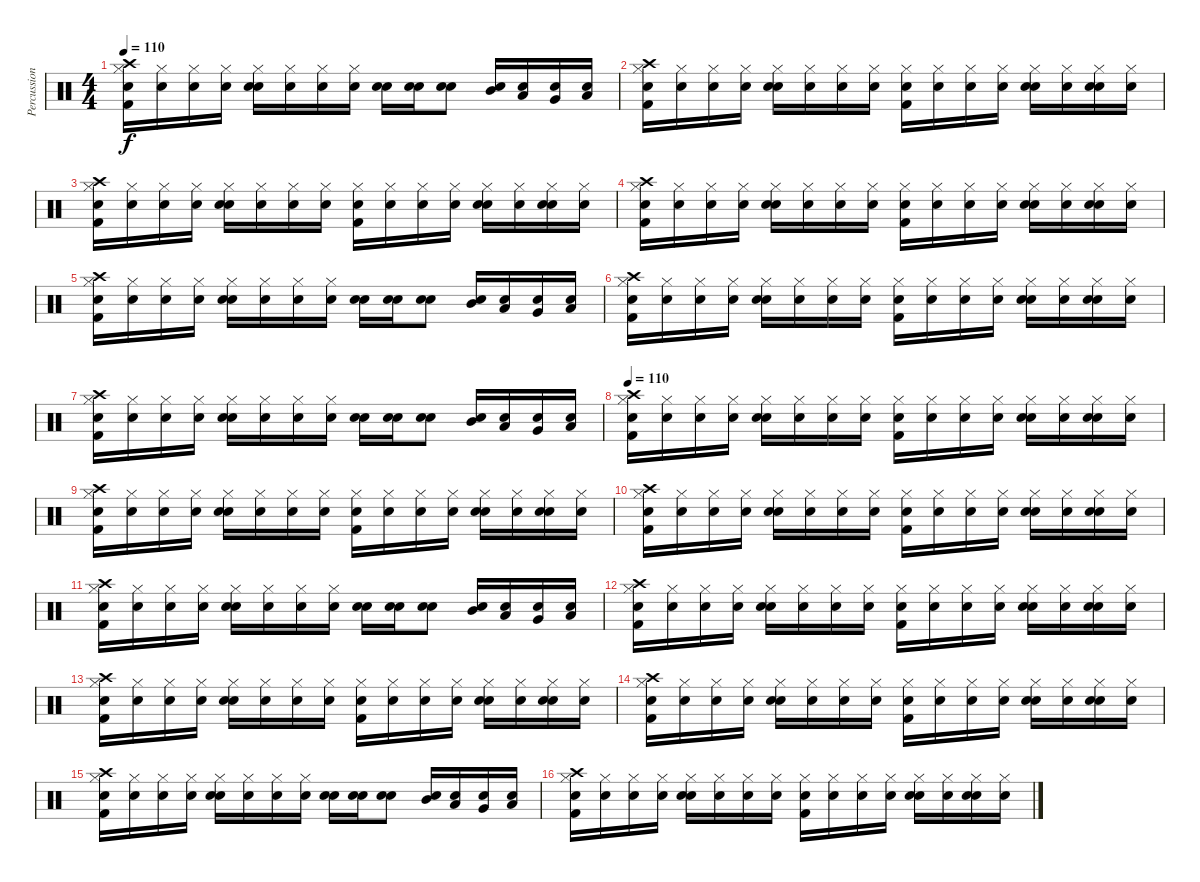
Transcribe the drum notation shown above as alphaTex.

\track ("Percussion" "Percussion") {instrument percussion}
\staff {score}
\articulation defaults
\ts (4 4)
\tempo 110
\clef neutral
\ks c
("Snare (hit)" "Kick (hit) 2" "Hi-Hat (closed)" "Crash high (hit)").16{dy f} ("Snare (hit)" "Hi-Hat (closed)").16 ("Snare (hit)" "Hi-Hat (closed)").16 ("Snare (hit)" "Hi-Hat (closed)").16 ("Snare (hit)" "Snare (hit) 2" "Hi-Hat (closed)").16 ("Snare (hit)" "Hi-Hat (closed)").16 ("Snare (hit)" "Hi-Hat (closed)").16 ("Snare (hit)" "Hi-Hat (closed)").16 ("Snare (hit)" "Snare (hit) 2").16 ("Snare (hit)" "Snare (hit) 2").16 ("Snare (hit)" "Snare (hit) 2").8 ("Snare (hit)" "Mid Tom (hit)").16 ("Snare (hit)" "Low Tom (hit)").16 ("Snare (hit)" "Very Low Tom (hit)").16 ("Snare (hit)" "Low Floor Tom (hit)").16 |
("Snare (hit)" "Kick (hit) 2" "Hi-Hat (closed)" "Crash high (hit)").16 ("Snare (hit)" "Hi-Hat (closed)").16 ("Snare (hit)" "Hi-Hat (closed)").16 ("Snare (hit)" "Hi-Hat (closed)").16 ("Snare (hit)" "Snare (hit) 2" "Hi-Hat (closed)").16 ("Snare (hit)" "Hi-Hat (closed)").16 ("Snare (hit)" "Hi-Hat (closed)").16 ("Snare (hit)" "Hi-Hat (closed)").16 ("Snare (hit)" "Kick (hit) 2" "Hi-Hat (closed)").16 ("Snare (hit)" "Hi-Hat (closed)").16 ("Snare (hit)" "Hi-Hat (closed)").16 ("Snare (hit)" "Hi-Hat (closed)").16 ("Snare (hit)" "Snare (hit) 2" "Hi-Hat (closed)").16 ("Snare (hit)" "Hi-Hat (closed)").16 ("Snare (hit)" "Snare (hit) 2" "Hi-Hat (closed)").16 ("Snare (hit)" "Hi-Hat (closed)").16 |
("Snare (hit)" "Kick (hit) 2" "Hi-Hat (closed)" "Crash high (hit)").16 ("Snare (hit)" "Hi-Hat (closed)").16 ("Snare (hit)" "Hi-Hat (closed)").16 ("Snare (hit)" "Hi-Hat (closed)").16 ("Snare (hit)" "Snare (hit) 2" "Hi-Hat (closed)").16 ("Snare (hit)" "Hi-Hat (closed)").16 ("Snare (hit)" "Hi-Hat (closed)").16 ("Snare (hit)" "Hi-Hat (closed)").16 ("Snare (hit)" "Kick (hit) 2" "Hi-Hat (closed)").16 ("Snare (hit)" "Hi-Hat (closed)").16 ("Snare (hit)" "Hi-Hat (closed)").16 ("Snare (hit)" "Hi-Hat (closed)").16 ("Snare (hit)" "Snare (hit) 2" "Hi-Hat (closed)").16 ("Snare (hit)" "Hi-Hat (closed)").16 ("Snare (hit)" "Snare (hit) 2" "Hi-Hat (closed)").16 ("Snare (hit)" "Hi-Hat (closed)").16 |
("Snare (hit)" "Kick (hit) 2" "Hi-Hat (closed)" "Crash high (hit)").16 ("Snare (hit)" "Hi-Hat (closed)").16 ("Snare (hit)" "Hi-Hat (closed)").16 ("Snare (hit)" "Hi-Hat (closed)").16 ("Snare (hit)" "Snare (hit) 2" "Hi-Hat (closed)").16 ("Snare (hit)" "Hi-Hat (closed)").16 ("Snare (hit)" "Hi-Hat (closed)").16 ("Snare (hit)" "Hi-Hat (closed)").16 ("Snare (hit)" "Kick (hit) 2" "Hi-Hat (closed)").16 ("Snare (hit)" "Hi-Hat (closed)").16 ("Snare (hit)" "Hi-Hat (closed)").16 ("Snare (hit)" "Hi-Hat (closed)").16 ("Snare (hit)" "Snare (hit) 2" "Hi-Hat (closed)").16 ("Snare (hit)" "Hi-Hat (closed)").16 ("Snare (hit)" "Snare (hit) 2" "Hi-Hat (closed)").16 ("Snare (hit)" "Hi-Hat (closed)").16 |
("Snare (hit)" "Kick (hit) 2" "Hi-Hat (closed)" "Crash high (hit)").16 ("Snare (hit)" "Hi-Hat (closed)").16 ("Snare (hit)" "Hi-Hat (closed)").16 ("Snare (hit)" "Hi-Hat (closed)").16 ("Snare (hit)" "Snare (hit) 2" "Hi-Hat (closed)").16 ("Snare (hit)" "Hi-Hat (closed)").16 ("Snare (hit)" "Hi-Hat (closed)").16 ("Snare (hit)" "Hi-Hat (closed)").16 ("Snare (hit)" "Snare (hit) 2").16 ("Snare (hit)" "Snare (hit) 2").16 ("Snare (hit)" "Snare (hit) 2").8 ("Snare (hit)" "Mid Tom (hit)").16 ("Snare (hit)" "Low Tom (hit)").16 ("Snare (hit)" "Very Low Tom (hit)").16 ("Snare (hit)" "Low Floor Tom (hit)").16 |
("Snare (hit)" "Kick (hit) 2" "Hi-Hat (closed)" "Crash high (hit)").16 ("Snare (hit)" "Hi-Hat (closed)").16 ("Snare (hit)" "Hi-Hat (closed)").16 ("Snare (hit)" "Hi-Hat (closed)").16 ("Snare (hit)" "Snare (hit) 2" "Hi-Hat (closed)").16 ("Snare (hit)" "Hi-Hat (closed)").16 ("Snare (hit)" "Hi-Hat (closed)").16 ("Snare (hit)" "Hi-Hat (closed)").16 ("Snare (hit)" "Kick (hit) 2" "Hi-Hat (closed)").16 ("Snare (hit)" "Hi-Hat (closed)").16 ("Snare (hit)" "Hi-Hat (closed)").16 ("Snare (hit)" "Hi-Hat (closed)").16 ("Snare (hit)" "Snare (hit) 2" "Hi-Hat (closed)").16 ("Snare (hit)" "Hi-Hat (closed)").16 ("Snare (hit)" "Snare (hit) 2" "Hi-Hat (closed)").16 ("Snare (hit)" "Hi-Hat (closed)").16 |
("Snare (hit)" "Kick (hit) 2" "Hi-Hat (closed)" "Crash high (hit)").16 ("Snare (hit)" "Hi-Hat (closed)").16 ("Snare (hit)" "Hi-Hat (closed)").16 ("Snare (hit)" "Hi-Hat (closed)").16 ("Snare (hit)" "Snare (hit) 2" "Hi-Hat (closed)").16 ("Snare (hit)" "Hi-Hat (closed)").16 ("Snare (hit)" "Hi-Hat (closed)").16 ("Snare (hit)" "Hi-Hat (closed)").16 ("Snare (hit)" "Snare (hit) 2").16 ("Snare (hit)" "Snare (hit) 2").16 ("Snare (hit)" "Snare (hit) 2").8 ("Snare (hit)" "Mid Tom (hit)").16 ("Snare (hit)" "Low Tom (hit)").16 ("Snare (hit)" "Very Low Tom (hit)").16 ("Snare (hit)" "Low Floor Tom (hit)").16 |
\tempo 110
("Snare (hit)" "Kick (hit) 2" "Hi-Hat (closed)" "Crash high (hit)").16 ("Snare (hit)" "Hi-Hat (closed)").16 ("Snare (hit)" "Hi-Hat (closed)").16 ("Snare (hit)" "Hi-Hat (closed)").16 ("Snare (hit)" "Snare (hit) 2" "Hi-Hat (closed)").16 ("Snare (hit)" "Hi-Hat (closed)").16 ("Snare (hit)" "Hi-Hat (closed)").16 ("Snare (hit)" "Hi-Hat (closed)").16 ("Snare (hit)" "Kick (hit) 2" "Hi-Hat (closed)").16 ("Snare (hit)" "Hi-Hat (closed)").16 ("Snare (hit)" "Hi-Hat (closed)").16 ("Snare (hit)" "Hi-Hat (closed)").16 ("Snare (hit)" "Snare (hit) 2" "Hi-Hat (closed)").16 ("Snare (hit)" "Hi-Hat (closed)").16 ("Snare (hit)" "Snare (hit) 2" "Hi-Hat (closed)").16 ("Snare (hit)" "Hi-Hat (closed)").16 |
("Snare (hit)" "Kick (hit) 2" "Hi-Hat (closed)" "Crash high (hit)").16 ("Snare (hit)" "Hi-Hat (closed)").16 ("Snare (hit)" "Hi-Hat (closed)").16 ("Snare (hit)" "Hi-Hat (closed)").16 ("Snare (hit)" "Snare (hit) 2" "Hi-Hat (closed)").16 ("Snare (hit)" "Hi-Hat (closed)").16 ("Snare (hit)" "Hi-Hat (closed)").16 ("Snare (hit)" "Hi-Hat (closed)").16 ("Snare (hit)" "Kick (hit) 2" "Hi-Hat (closed)").16 ("Snare (hit)" "Hi-Hat (closed)").16 ("Snare (hit)" "Hi-Hat (closed)").16 ("Snare (hit)" "Hi-Hat (closed)").16 ("Snare (hit)" "Snare (hit) 2" "Hi-Hat (closed)").16 ("Snare (hit)" "Hi-Hat (closed)").16 ("Snare (hit)" "Snare (hit) 2" "Hi-Hat (closed)").16 ("Snare (hit)" "Hi-Hat (closed)").16 |
("Snare (hit)" "Kick (hit) 2" "Hi-Hat (closed)" "Crash high (hit)").16 ("Snare (hit)" "Hi-Hat (closed)").16 ("Snare (hit)" "Hi-Hat (closed)").16 ("Snare (hit)" "Hi-Hat (closed)").16 ("Snare (hit)" "Snare (hit) 2" "Hi-Hat (closed)").16 ("Snare (hit)" "Hi-Hat (closed)").16 ("Snare (hit)" "Hi-Hat (closed)").16 ("Snare (hit)" "Hi-Hat (closed)").16 ("Snare (hit)" "Kick (hit) 2" "Hi-Hat (closed)").16 ("Snare (hit)" "Hi-Hat (closed)").16 ("Snare (hit)" "Hi-Hat (closed)").16 ("Snare (hit)" "Hi-Hat (closed)").16 ("Snare (hit)" "Snare (hit) 2" "Hi-Hat (closed)").16 ("Snare (hit)" "Hi-Hat (closed)").16 ("Snare (hit)" "Snare (hit) 2" "Hi-Hat (closed)").16 ("Snare (hit)" "Hi-Hat (closed)").16 |
("Snare (hit)" "Kick (hit) 2" "Hi-Hat (closed)" "Crash high (hit)").16 ("Snare (hit)" "Hi-Hat (closed)").16 ("Snare (hit)" "Hi-Hat (closed)").16 ("Snare (hit)" "Hi-Hat (closed)").16 ("Snare (hit)" "Snare (hit) 2" "Hi-Hat (closed)").16 ("Snare (hit)" "Hi-Hat (closed)").16 ("Snare (hit)" "Hi-Hat (closed)").16 ("Snare (hit)" "Hi-Hat (closed)").16 ("Snare (hit)" "Snare (hit) 2").16 ("Snare (hit)" "Snare (hit) 2").16 ("Snare (hit)" "Snare (hit) 2").8 ("Snare (hit)" "Mid Tom (hit)").16 ("Snare (hit)" "Low Tom (hit)").16 ("Snare (hit)" "Very Low Tom (hit)").16 ("Snare (hit)" "Low Floor Tom (hit)").16 |
("Snare (hit)" "Kick (hit) 2" "Hi-Hat (closed)" "Crash high (hit)").16 ("Snare (hit)" "Hi-Hat (closed)").16 ("Snare (hit)" "Hi-Hat (closed)").16 ("Snare (hit)" "Hi-Hat (closed)").16 ("Snare (hit)" "Snare (hit) 2" "Hi-Hat (closed)").16 ("Snare (hit)" "Hi-Hat (closed)").16 ("Snare (hit)" "Hi-Hat (closed)").16 ("Snare (hit)" "Hi-Hat (closed)").16 ("Snare (hit)" "Kick (hit) 2" "Hi-Hat (closed)").16 ("Snare (hit)" "Hi-Hat (closed)").16 ("Snare (hit)" "Hi-Hat (closed)").16 ("Snare (hit)" "Hi-Hat (closed)").16 ("Snare (hit)" "Snare (hit) 2" "Hi-Hat (closed)").16 ("Snare (hit)" "Hi-Hat (closed)").16 ("Snare (hit)" "Snare (hit) 2" "Hi-Hat (closed)").16 ("Snare (hit)" "Hi-Hat (closed)").16 |
("Snare (hit)" "Kick (hit) 2" "Hi-Hat (closed)" "Crash high (hit)").16 ("Snare (hit)" "Hi-Hat (closed)").16 ("Snare (hit)" "Hi-Hat (closed)").16 ("Snare (hit)" "Hi-Hat (closed)").16 ("Snare (hit)" "Snare (hit) 2" "Hi-Hat (closed)").16 ("Snare (hit)" "Hi-Hat (closed)").16 ("Snare (hit)" "Hi-Hat (closed)").16 ("Snare (hit)" "Hi-Hat (closed)").16 ("Snare (hit)" "Kick (hit) 2" "Hi-Hat (closed)").16 ("Snare (hit)" "Hi-Hat (closed)").16 ("Snare (hit)" "Hi-Hat (closed)").16 ("Snare (hit)" "Hi-Hat (closed)").16 ("Snare (hit)" "Snare (hit) 2" "Hi-Hat (closed)").16 ("Snare (hit)" "Hi-Hat (closed)").16 ("Snare (hit)" "Snare (hit) 2" "Hi-Hat (closed)").16 ("Snare (hit)" "Hi-Hat (closed)").16 |
("Snare (hit)" "Kick (hit) 2" "Hi-Hat (closed)" "Crash high (hit)").16 ("Snare (hit)" "Hi-Hat (closed)").16 ("Snare (hit)" "Hi-Hat (closed)").16 ("Snare (hit)" "Hi-Hat (closed)").16 ("Snare (hit)" "Snare (hit) 2" "Hi-Hat (closed)").16 ("Snare (hit)" "Hi-Hat (closed)").16 ("Snare (hit)" "Hi-Hat (closed)").16 ("Snare (hit)" "Hi-Hat (closed)").16 ("Snare (hit)" "Kick (hit) 2" "Hi-Hat (closed)").16 ("Snare (hit)" "Hi-Hat (closed)").16 ("Snare (hit)" "Hi-Hat (closed)").16 ("Snare (hit)" "Hi-Hat (closed)").16 ("Snare (hit)" "Snare (hit) 2" "Hi-Hat (closed)").16 ("Snare (hit)" "Hi-Hat (closed)").16 ("Snare (hit)" "Snare (hit) 2" "Hi-Hat (closed)").16 ("Snare (hit)" "Hi-Hat (closed)").16 |
("Snare (hit)" "Kick (hit) 2" "Hi-Hat (closed)" "Crash high (hit)").16 ("Snare (hit)" "Hi-Hat (closed)").16 ("Snare (hit)" "Hi-Hat (closed)").16 ("Snare (hit)" "Hi-Hat (closed)").16 ("Snare (hit)" "Snare (hit) 2" "Hi-Hat (closed)").16 ("Snare (hit)" "Hi-Hat (closed)").16 ("Snare (hit)" "Hi-Hat (closed)").16 ("Snare (hit)" "Hi-Hat (closed)").16 ("Snare (hit)" "Snare (hit) 2").16 ("Snare (hit)" "Snare (hit) 2").16 ("Snare (hit)" "Snare (hit) 2").8 ("Snare (hit)" "Mid Tom (hit)").16 ("Snare (hit)" "Low Tom (hit)").16 ("Snare (hit)" "Very Low Tom (hit)").16 ("Snare (hit)" "Low Floor Tom (hit)").16 |
("Snare (hit)" "Kick (hit) 2" "Hi-Hat (closed)" "Crash high (hit)").16 ("Snare (hit)" "Hi-Hat (closed)").16 ("Snare (hit)" "Hi-Hat (closed)").16 ("Snare (hit)" "Hi-Hat (closed)").16 ("Snare (hit)" "Snare (hit) 2" "Hi-Hat (closed)").16 ("Snare (hit)" "Hi-Hat (closed)").16 ("Snare (hit)" "Hi-Hat (closed)").16 ("Snare (hit)" "Hi-Hat (closed)").16 ("Snare (hit)" "Kick (hit) 2" "Hi-Hat (closed)").16 ("Snare (hit)" "Hi-Hat (closed)").16 ("Snare (hit)" "Hi-Hat (closed)").16 ("Snare (hit)" "Hi-Hat (closed)").16 ("Snare (hit)" "Snare (hit) 2" "Hi-Hat (closed)").16 ("Snare (hit)" "Hi-Hat (closed)").16 ("Snare (hit)" "Snare (hit) 2" "Hi-Hat (closed)").16 ("Snare (hit)" "Hi-Hat (closed)").16
